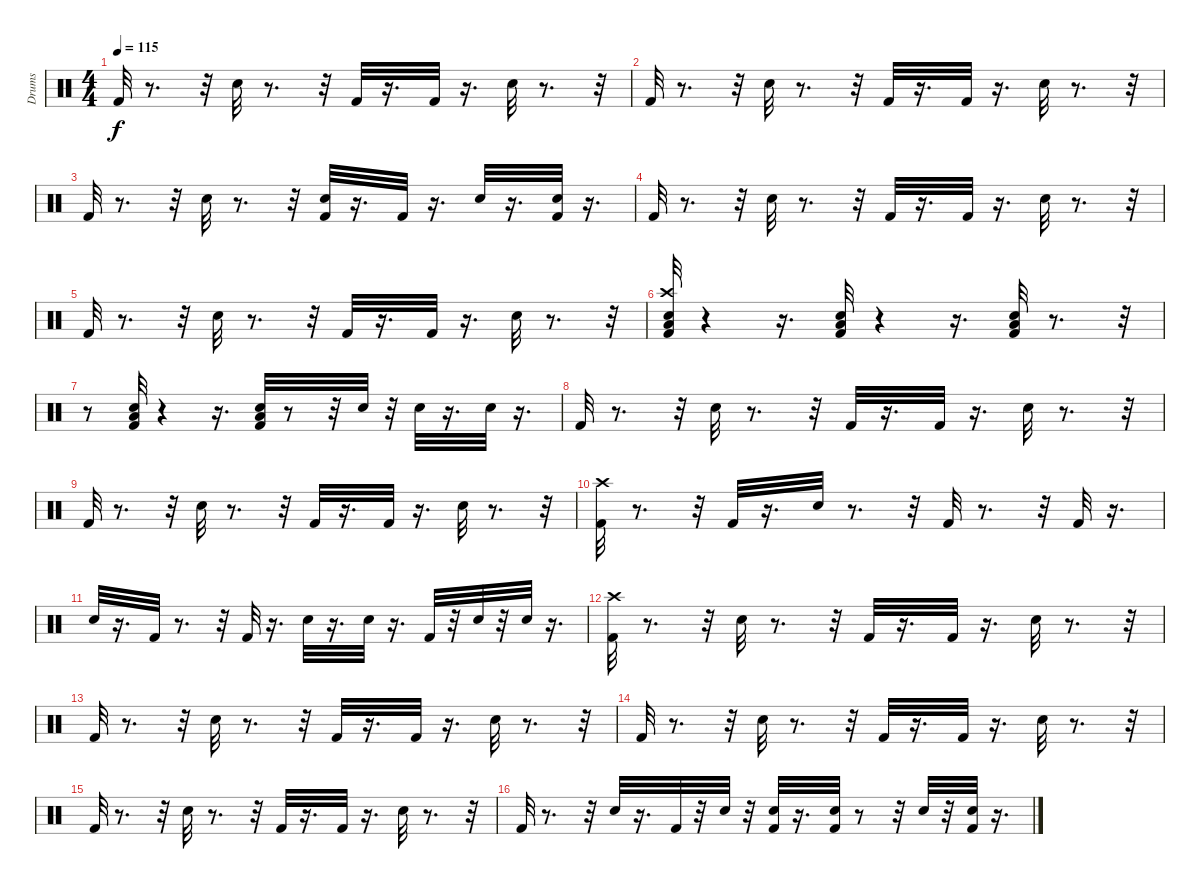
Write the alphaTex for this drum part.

\track ("Drums" "Drums") {instrument percussion}
\staff {score}
\articulation defaults
\ts (4 4)
\tempo 115
\clef neutral
\ks c "Kick (hit) 2".32{dy f}
r.8{d} r.32 "Snare (hit) 2".32 r.8{d} r.32 "Kick (hit) 2".32 r.16{d} "Kick (hit) 2".32 r.16{d} "Snare (hit) 2".32 r.8{d} r.32 |
"Kick (hit) 2".32 r.8{d} r.32 "Snare (hit) 2".32 r.8{d} r.32 "Kick (hit) 2".32 r.16{d} "Kick (hit) 2".32 r.16{d} "Snare (hit) 2".32 r.8{d} r.32 |
"Kick (hit) 2".32 r.8{d} r.32 "Snare (hit) 2".32 r.8{d} r.32 ("Snare (hit) 2" "Kick (hit) 2").32 r.16{d} "Kick (hit) 2".32 r.16{d} "Snare (hit) 2".32 r.16{d} ("Kick (hit) 2" "Snare (hit) 2").32 r.16{d} |
"Kick (hit) 2".32 r.8{d} r.32 "Snare (hit) 2".32 r.8{d} r.32 "Kick (hit) 2".32 r.16{d} "Kick (hit) 2".32 r.16{d} "Snare (hit) 2".32 r.8{d} r.32 |
"Kick (hit) 2".32 r.8{d} r.32 "Snare (hit) 2".32 r.8{d} r.32 "Kick (hit) 2".32 r.16{d} "Kick (hit) 2".32 r.16{d} "Snare (hit) 2".32 r.8{d} r.32 |
("Crash high (hit)" "Kick (hit) 2" "Low Floor Tom (hit)" "Snare (hit) 2").32 r.4 r.16{d} ("Kick (hit) 2" "Low Floor Tom (hit)" "Snare (hit) 2").32 r.4 r.16{d} ("Kick (hit) 2" "Low Floor Tom (hit)" "Snare (hit) 2").32 r.8{d} r.32 |
r.8 ("Kick (hit) 2" "Low Floor Tom (hit)" "Snare (hit) 2").32 r.4 r.16{d} ("Kick (hit) 2" "Low Floor Tom (hit)" "Snare (hit) 2").32 r.8 r.32 "Snare (hit) 2".32 r.32 "Snare (hit) 2".32 r.16{d} "Snare (hit) 2".32 r.16{d} |
"Kick (hit) 2".32 r.8{d} r.32 "Snare (hit) 2".32 r.8{d} r.32 "Kick (hit) 2".32 r.16{d} "Kick (hit) 2".32 r.16{d} "Snare (hit) 2".32 r.8{d} r.32 |
"Kick (hit) 2".32 r.8{d} r.32 "Snare (hit) 2".32 r.8{d} r.32 "Kick (hit) 2".32 r.16{d} "Kick (hit) 2".32 r.16{d} "Snare (hit) 2".32 r.8{d} r.32 |
("Crash high (hit)" "Kick (hit) 2").32 r.8{d} r.32 "Kick (hit) 2".32 r.16{d} "Snare (hit) 2".32 r.8{d} r.32 "Kick (hit) 2".32 r.8{d} r.32 "Kick (hit) 2".32 r.16{d} |
"Snare (hit) 2".32 r.16{d} "Kick (hit) 2".32 r.8{d} r.32 "Kick (hit) 2".32 r.16{d} "Snare (hit) 2".32 r.16{d} "Snare (hit) 2".32 r.16{d} "Kick (hit) 2".32 r.32 "Snare (hit) 2".32 r.32 "Snare (hit) 2".32 r.16{d} |
("Crash high (hit)" "Kick (hit) 2").32 r.8{d} r.32 "Snare (hit) 2".32 r.8{d} r.32 "Kick (hit) 2".32 r.16{d} "Kick (hit) 2".32 r.16{d} "Snare (hit) 2".32 r.8{d} r.32 |
"Kick (hit) 2".32 r.8{d} r.32 "Snare (hit) 2".32 r.8{d} r.32 "Kick (hit) 2".32 r.16{d} "Kick (hit) 2".32 r.16{d} "Snare (hit) 2".32 r.8{d} r.32 |
"Kick (hit) 2".32 r.8{d} r.32 "Snare (hit) 2".32 r.8{d} r.32 "Kick (hit) 2".32 r.16{d} "Kick (hit) 2".32 r.16{d} "Snare (hit) 2".32 r.8{d} r.32 |
"Kick (hit) 2".32 r.8{d} r.32 "Snare (hit) 2".32 r.8{d} r.32 "Kick (hit) 2".32 r.16{d} "Kick (hit) 2".32 r.16{d} "Snare (hit) 2".32 r.8{d} r.32 |
"Kick (hit) 2".32 r.8{d} r.32 "Snare (hit) 2".32 r.16{d} "Kick (hit) 2".32 r.32 "Snare (hit) 2".32 r.32 ("Snare (hit) 2" "Kick (hit) 2").32 r.16{d} ("Snare (hit) 2" "Kick (hit) 2").32 r.8 r.32 "Snare (hit) 2".32 r.32 ("Kick (hit) 2" "Snare (hit) 2").32 r.16{d}
